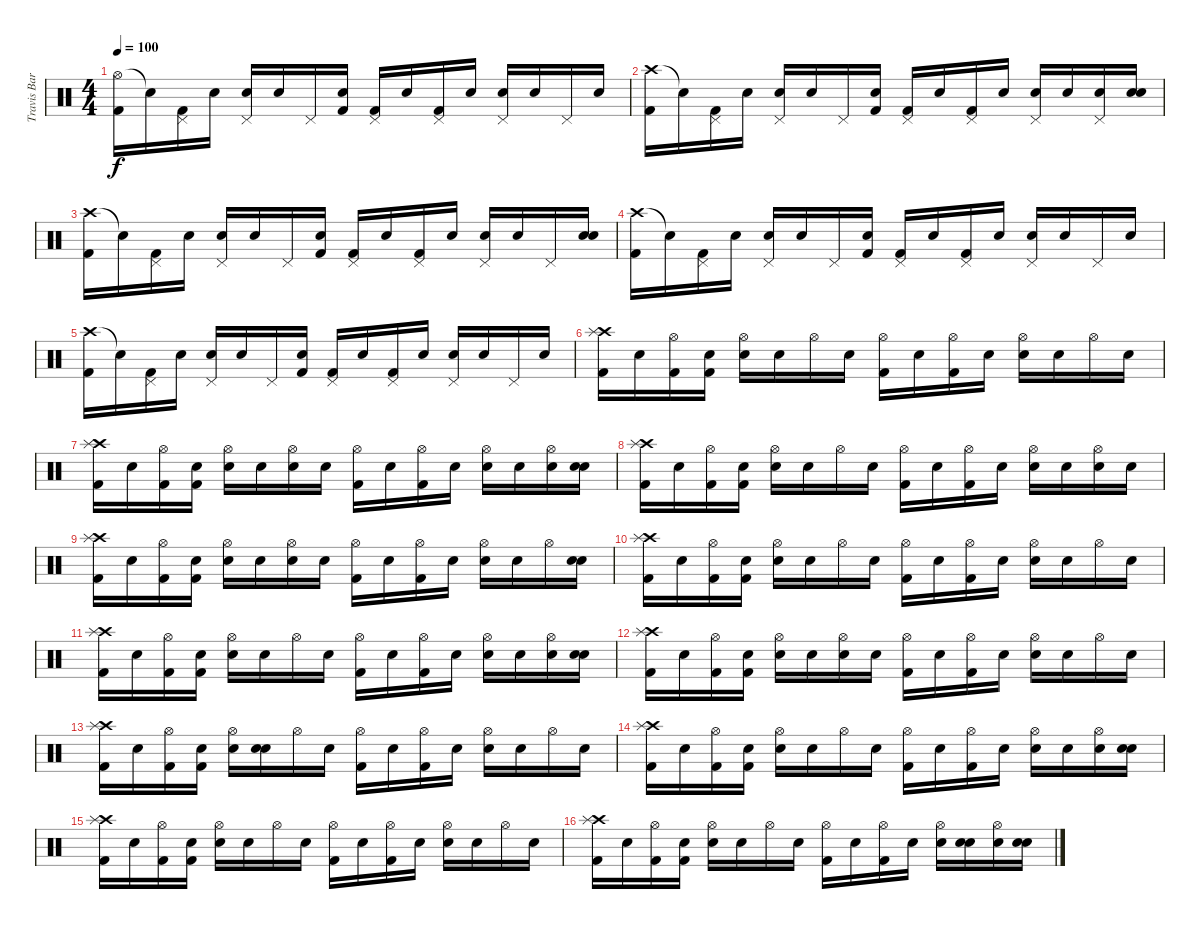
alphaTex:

\track ("Travis Barker - Batterie" "Travis Bar") {instrument percussion}
\staff {score}
\articulation defaults
\ts (4 4)
\tempo 100
\clef neutral
\ks c
("Hi-Hat (open)" "Kick (hit) 2").16{dy f} "Snare (hit)"{t}.16 ("Pedal Hi-Hat (hit)" "Kick (hit) 2").16 "Snare (hit)"{x}.16 ("Pedal Hi-Hat (hit)" "Electric Snare (hit)").16 "Snare (hit)"{x}.16 "Pedal Hi-Hat (hit)".16 ("Snare (hit)"{x} "Kick (hit) 2").16 ("Pedal Hi-Hat (hit)" "Kick (hit) 2").16 "Snare (hit)"{x}.16 ("Pedal Hi-Hat (hit)" "Kick (hit) 2").16 "Snare (hit)"{x}.16 ("Pedal Hi-Hat (hit)" "Electric Snare (hit)").16 "Snare (hit)"{x}.16 "Pedal Hi-Hat (hit)".16 "Snare (hit)"{x}.16 |
("Crash high (hit)" "Kick (hit) 2").16 "Snare (hit)"{t}.16 ("Pedal Hi-Hat (hit)" "Kick (hit) 2").16 "Snare (hit)"{x}.16 ("Pedal Hi-Hat (hit)" "Electric Snare (hit)").16 "Snare (hit)"{x}.16 "Pedal Hi-Hat (hit)".16 ("Snare (hit)"{x} "Kick (hit) 2").16 ("Pedal Hi-Hat (hit)" "Kick (hit) 2").16 "Snare (hit)"{x}.16 ("Pedal Hi-Hat (hit)" "Kick (hit) 2").16 "Snare (hit)"{x}.16 ("Pedal Hi-Hat (hit)" "Electric Snare (hit)").16 "Snare (hit)"{x}.16 ("Pedal Hi-Hat (hit)" "Electric Snare (hit)").16 ("Snare (hit)"{x} "Electric Snare (hit)").16 |
("Crash high (hit)" "Kick (hit) 2").16 "Snare (hit)"{t}.16 ("Pedal Hi-Hat (hit)" "Kick (hit) 2").16 "Snare (hit)"{x}.16 ("Pedal Hi-Hat (hit)" "Electric Snare (hit)").16 "Snare (hit)"{x}.16 "Pedal Hi-Hat (hit)".16 ("Snare (hit)"{x} "Kick (hit) 2").16 ("Pedal Hi-Hat (hit)" "Kick (hit) 2").16 "Snare (hit)"{x}.16 ("Pedal Hi-Hat (hit)" "Kick (hit) 2").16 "Snare (hit)"{x}.16 ("Pedal Hi-Hat (hit)" "Electric Snare (hit)").16 "Snare (hit)"{x}.16 "Pedal Hi-Hat (hit)".16 ("Snare (hit)"{x} "Electric Snare (hit)").16 |
("Crash high (hit)" "Kick (hit) 2").16 "Snare (hit)"{t}.16 ("Pedal Hi-Hat (hit)" "Kick (hit) 2").16 "Snare (hit)"{x}.16 ("Pedal Hi-Hat (hit)" "Electric Snare (hit)").16 "Snare (hit)"{x}.16 "Pedal Hi-Hat (hit)".16 ("Snare (hit)"{x} "Kick (hit) 2").16 ("Pedal Hi-Hat (hit)" "Kick (hit) 2").16 "Snare (hit)"{x}.16 ("Pedal Hi-Hat (hit)" "Kick (hit) 2").16 "Snare (hit)"{x}.16 ("Pedal Hi-Hat (hit)" "Electric Snare (hit)").16 "Snare (hit)"{x}.16 "Pedal Hi-Hat (hit)".16 "Snare (hit)"{x}.16 |
("Crash high (hit)" "Kick (hit) 2").16 "Snare (hit)"{t}.16 ("Pedal Hi-Hat (hit)" "Kick (hit) 2").16 "Snare (hit)"{x}.16 ("Pedal Hi-Hat (hit)" "Electric Snare (hit)").16 "Snare (hit)"{x}.16 "Pedal Hi-Hat (hit)".16 ("Snare (hit)"{x} "Kick (hit) 2").16 ("Pedal Hi-Hat (hit)" "Kick (hit) 2").16 "Snare (hit)"{x}.16 ("Pedal Hi-Hat (hit)" "Kick (hit) 2").16 "Snare (hit)"{x}.16 ("Pedal Hi-Hat (hit)" "Electric Snare (hit)").16 "Snare (hit)"{x}.16 "Pedal Hi-Hat (hit)".16 "Snare (hit)"{x}.16 |
("Crash high (hit)" "Splash (hit)" "Kick (hit) 2").16 "Snare (hit)"{x}.16 ("Hi-Hat (open)" "Kick (hit) 2").16 ("Snare (hit)"{x} "Kick (hit) 2").16 ("Hi-Hat (open)" "Electric Snare (hit)").16 "Snare (hit)"{x}.16 "Hi-Hat (open)".16 "Snare (hit)"{x}.16 ("Hi-Hat (open)" "Kick (hit) 2").16 "Snare (hit)"{x}.16 ("Hi-Hat (open)" "Kick (hit) 2").16 "Snare (hit)"{x}.16 ("Hi-Hat (open)" "Electric Snare (hit)").16 "Snare (hit)"{x}.16 "Hi-Hat (open)".16 "Snare (hit)"{x}.16 |
("Crash high (hit)" "Splash (hit)" "Kick (hit) 2").16 "Snare (hit)"{x}.16 ("Hi-Hat (open)" "Kick (hit) 2").16 ("Snare (hit)"{x} "Kick (hit) 2").16 ("Hi-Hat (open)" "Electric Snare (hit)").16 "Snare (hit)"{x}.16 ("Hi-Hat (open)" "Electric Snare (hit)").16 "Snare (hit)"{x}.16 ("Hi-Hat (open)" "Kick (hit) 2").16 "Snare (hit)"{x}.16 ("Hi-Hat (open)" "Kick (hit) 2").16 "Snare (hit)"{x}.16 ("Hi-Hat (open)" "Electric Snare (hit)").16 "Snare (hit)"{x}.16 ("Hi-Hat (open)" "Electric Snare (hit)").16 ("Snare (hit)"{x} "Electric Snare (hit)").16 |
("Crash high (hit)" "Splash (hit)" "Kick (hit) 2").16 "Snare (hit)"{x}.16 ("Hi-Hat (open)" "Kick (hit) 2").16 ("Snare (hit)"{x} "Kick (hit) 2").16 ("Hi-Hat (open)" "Electric Snare (hit)").16 "Snare (hit)"{x}.16 "Hi-Hat (open)".16 "Snare (hit)"{x}.16 ("Hi-Hat (open)" "Kick (hit) 2").16 "Snare (hit)"{x}.16 ("Hi-Hat (open)" "Kick (hit) 2").16 "Snare (hit)"{x}.16 ("Hi-Hat (open)" "Electric Snare (hit)").16 "Snare (hit)"{x}.16 ("Hi-Hat (open)" "Electric Snare (hit)").16 "Snare (hit)"{x}.16 |
("Crash high (hit)" "Splash (hit)" "Kick (hit) 2").16 "Snare (hit)"{x}.16 ("Hi-Hat (open)" "Kick (hit) 2").16 ("Snare (hit)"{x} "Kick (hit) 2").16 ("Hi-Hat (open)" "Electric Snare (hit)").16 "Snare (hit)"{x}.16 ("Hi-Hat (open)" "Electric Snare (hit)").16 "Snare (hit)"{x}.16 ("Hi-Hat (open)" "Kick (hit) 2").16 "Snare (hit)"{x}.16 ("Hi-Hat (open)" "Kick (hit) 2").16 "Snare (hit)"{x}.16 ("Hi-Hat (open)" "Electric Snare (hit)").16 "Snare (hit)"{x}.16 "Hi-Hat (open)".16 ("Snare (hit)"{x} "Electric Snare (hit)").16 |
("Crash high (hit)" "Splash (hit)" "Kick (hit) 2").16 "Snare (hit)"{x}.16 ("Hi-Hat (open)" "Kick (hit) 2").16 ("Snare (hit)"{x} "Kick (hit) 2").16 ("Hi-Hat (open)" "Electric Snare (hit)").16 "Snare (hit)"{x}.16 "Hi-Hat (open)".16 "Snare (hit)"{x}.16 ("Hi-Hat (open)" "Kick (hit) 2").16 "Snare (hit)"{x}.16 ("Hi-Hat (open)" "Kick (hit) 2").16 "Snare (hit)"{x}.16 ("Hi-Hat (open)" "Electric Snare (hit)").16 "Snare (hit)"{x}.16 "Hi-Hat (open)".16 "Snare (hit)"{x}.16 |
("Crash high (hit)" "Splash (hit)" "Kick (hit) 2").16 "Snare (hit)"{x}.16 ("Hi-Hat (open)" "Kick (hit) 2").16 ("Snare (hit)"{x} "Kick (hit) 2").16 ("Hi-Hat (open)" "Electric Snare (hit)").16 "Snare (hit)"{x}.16 "Hi-Hat (open)".16 "Snare (hit)"{x}.16 ("Hi-Hat (open)" "Kick (hit) 2").16 "Snare (hit)"{x}.16 ("Hi-Hat (open)" "Kick (hit) 2").16 "Snare (hit)"{x}.16 ("Hi-Hat (open)" "Electric Snare (hit)").16 "Snare (hit)"{x}.16 ("Hi-Hat (open)" "Electric Snare (hit)").16 ("Snare (hit)"{x} "Electric Snare (hit)").16 |
("Crash high (hit)" "Splash (hit)" "Kick (hit) 2").16 "Snare (hit)"{x}.16 ("Hi-Hat (open)" "Kick (hit) 2").16 ("Snare (hit)"{x} "Kick (hit) 2").16 ("Hi-Hat (open)" "Electric Snare (hit)").16 "Snare (hit)"{x}.16 ("Hi-Hat (open)" "Electric Snare (hit)").16 "Snare (hit)"{x}.16 ("Hi-Hat (open)" "Kick (hit) 2").16 "Snare (hit)"{x}.16 ("Hi-Hat (open)" "Kick (hit) 2").16 "Snare (hit)"{x}.16 ("Hi-Hat (open)" "Electric Snare (hit)").16 "Snare (hit)"{x}.16 "Hi-Hat (open)".16 "Snare (hit)"{x}.16 |
("Crash high (hit)" "Splash (hit)" "Kick (hit) 2").16 "Snare (hit)"{x}.16 ("Hi-Hat (open)" "Kick (hit) 2").16 ("Snare (hit)"{x} "Kick (hit) 2").16 ("Hi-Hat (open)" "Electric Snare (hit)").16 ("Snare (hit)"{x} "Electric Snare (hit)").16 "Hi-Hat (open)".16 "Snare (hit)"{x}.16 ("Hi-Hat (open)" "Kick (hit) 2").16 "Snare (hit)"{x}.16 ("Hi-Hat (open)" "Kick (hit) 2").16 "Snare (hit)"{x}.16 ("Hi-Hat (open)" "Electric Snare (hit)").16 "Snare (hit)"{x}.16 "Hi-Hat (open)".16 "Snare (hit)"{x}.16 |
("Crash high (hit)" "Splash (hit)" "Kick (hit) 2").16 "Snare (hit)"{x}.16 ("Hi-Hat (open)" "Kick (hit) 2").16 ("Snare (hit)"{x} "Kick (hit) 2").16 ("Hi-Hat (open)" "Electric Snare (hit)").16 "Snare (hit)"{x}.16 "Hi-Hat (open)".16 "Snare (hit)"{x}.16 ("Hi-Hat (open)" "Kick (hit) 2").16 "Snare (hit)"{x}.16 ("Hi-Hat (open)" "Kick (hit) 2").16 "Snare (hit)"{x}.16 ("Hi-Hat (open)" "Electric Snare (hit)").16 "Snare (hit)"{x}.16 ("Hi-Hat (open)" "Electric Snare (hit)").16 ("Snare (hit)"{x} "Electric Snare (hit)"{tr (40 32)}).16 |
("Crash high (hit)" "Splash (hit)" "Kick (hit) 2").16 "Snare (hit)"{x}.16 ("Hi-Hat (open)" "Kick (hit) 2").16 ("Snare (hit)"{x} "Kick (hit) 2").16 ("Hi-Hat (open)" "Electric Snare (hit)").16 "Snare (hit)"{x}.16 "Hi-Hat (open)".16 "Snare (hit)"{x}.16 ("Hi-Hat (open)" "Kick (hit) 2").16 "Snare (hit)"{x}.16 ("Hi-Hat (open)" "Kick (hit) 2").16 "Snare (hit)"{x}.16 ("Hi-Hat (open)" "Electric Snare (hit)").16 "Snare (hit)"{x}.16 "Hi-Hat (open)".16 "Snare (hit)"{x}.16 |
("Crash high (hit)" "Splash (hit)" "Kick (hit) 2").16 "Snare (hit)"{x}.16 ("Hi-Hat (open)" "Kick (hit) 2").16 ("Snare (hit)"{x} "Kick (hit) 2").16 ("Hi-Hat (open)" "Electric Snare (hit)").16 "Snare (hit)"{x}.16 "Hi-Hat (open)".16 "Snare (hit)"{x}.16 ("Hi-Hat (open)" "Kick (hit) 2").16 "Snare (hit)"{x}.16 ("Hi-Hat (open)" "Kick (hit) 2").16 "Snare (hit)"{x}.16 ("Hi-Hat (open)" "Electric Snare (hit)").16 ("Snare (hit)"{x} "Electric Snare (hit)").16 ("Hi-Hat (open)" "Electric Snare (hit)").16 ("Snare (hit)"{x} "Electric Snare (hit)").16
